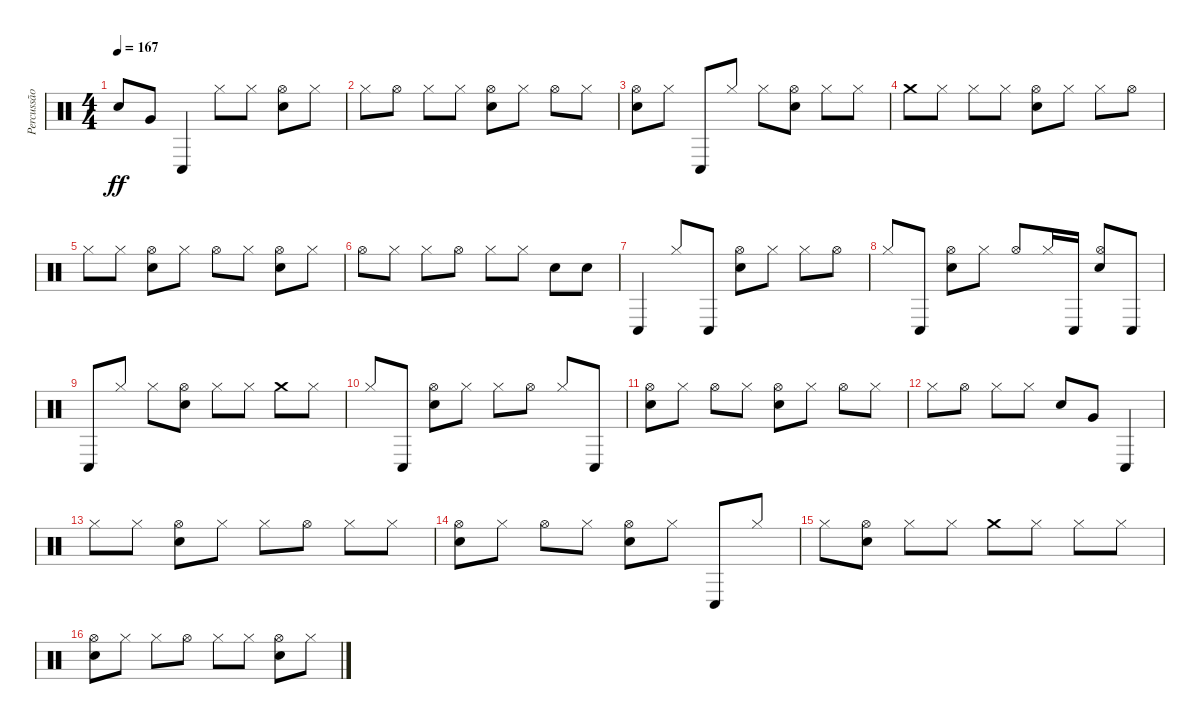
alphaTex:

\track ("Percussão" "Percussão") {instrument percussion}
\staff {score}
\articulation defaults
\ts (4 4)
\tempo 167
\clef neutral
\ks c "Electric Snare (hit)".8{dy ff} "Very Low Tom (hit)".8 "Conga low (hit)".4 "Hi-Hat (closed)".8 "Hi-Hat (closed)".8
("Electric Snare (hit)" "Hi-Hat (open)").8 "Hi-Hat (closed)".8 |
"Hi-Hat (closed)".8 "Hi-Hat (open)".8 "Hi-Hat (closed)".8 "Hi-Hat (closed)".8 ("Electric Snare (hit)" "Hi-Hat (open)").8 "Hi-Hat (closed)".8 "Hi-Hat (open)".8 "Hi-Hat (closed)".8 |
("Electric Snare (hit)" "Hi-Hat (open)").8 "Hi-Hat (closed)".8 "Conga low (hit)".8 "Hi-Hat (closed)".8 "Hi-Hat (closed)".8 ("Electric Snare (hit)" "Hi-Hat (open)").8 "Hi-Hat (closed)".8 "Hi-Hat (closed)".8 |
"Crash medium (hit)".8 "Hi-Hat (closed)".8 "Hi-Hat (closed)".8 "Hi-Hat (closed)".8 ("Electric Snare (hit)" "Hi-Hat (open)").8 "Hi-Hat (closed)".8 "Hi-Hat (closed)".8 "Hi-Hat (open)".8 |
"Hi-Hat (closed)".8 "Hi-Hat (closed)".8 ("Electric Snare (hit)" "Hi-Hat (open)").8 "Hi-Hat (closed)".8 "Hi-Hat (open)".8 "Hi-Hat (closed)".8 ("Electric Snare (hit)" "Hi-Hat (open)").8 "Hi-Hat (closed)".8 |
"Hi-Hat (open)".8 "Hi-Hat (closed)".8 "Hi-Hat (closed)".8 "Hi-Hat (open)".8 "Hi-Hat (closed)".8 "Hi-Hat (closed)".8 "Electric Snare (hit)".8 "Electric Snare (hit)".8 |
"Conga low (hit)".4 "Hi-Hat (closed)".8 "Conga low (hit)".8 ("Electric Snare (hit)" "Hi-Hat (open)").8 "Hi-Hat (closed)".8 "Hi-Hat (closed)".8 "Hi-Hat (open)".8 |
"Hi-Hat (closed)".8 "Conga low (hit)".8 ("Electric Snare (hit)" "Hi-Hat (open)").8 "Hi-Hat (closed)".8 "Hi-Hat (open)".8 "Hi-Hat (closed)".16 "Conga low (hit)".16 ("Electric Snare (hit)" "Hi-Hat (open)").8 "Conga low (hit)".8 |
"Conga low (hit)".8 "Hi-Hat (closed)".8 "Hi-Hat (closed)".8 ("Electric Snare (hit)" "Hi-Hat (open)").8 "Hi-Hat (closed)".8 "Hi-Hat (closed)".8 "Crash medium (hit)".8 "Hi-Hat (closed)".8 |
"Hi-Hat (closed)".8 "Conga low (hit)".8 ("Electric Snare (hit)" "Hi-Hat (open)").8 "Hi-Hat (closed)".8 "Hi-Hat (closed)".8 "Hi-Hat (open)".8 "Hi-Hat (closed)".8 "Conga low (hit)".8 |
("Electric Snare (hit)" "Hi-Hat (open)").8 "Hi-Hat (closed)".8 "Hi-Hat (open)".8 "Hi-Hat (closed)".8 ("Electric Snare (hit)" "Hi-Hat (open)").8 "Hi-Hat (closed)".8 "Hi-Hat (open)".8 "Hi-Hat (closed)".8 |
"Hi-Hat (closed)".8 "Hi-Hat (open)".8 "Hi-Hat (closed)".8 "Hi-Hat (closed)".8 "Electric Snare (hit)".8 "Very Low Tom (hit)".8 "Conga low (hit)".4 |
"Hi-Hat (closed)".8 "Hi-Hat (closed)".8 ("Electric Snare (hit)" "Hi-Hat (open)").8 "Hi-Hat (closed)".8 "Hi-Hat (closed)".8 "Hi-Hat (open)".8 "Hi-Hat (closed)".8 "Hi-Hat (closed)".8 |
("Electric Snare (hit)" "Hi-Hat (open)").8 "Hi-Hat (closed)".8 "Hi-Hat (open)".8 "Hi-Hat (closed)".8 ("Electric Snare (hit)" "Hi-Hat (open)").8 "Hi-Hat (closed)".8 "Conga low (hit)".8 "Hi-Hat (closed)".8 |
"Hi-Hat (closed)".8 ("Electric Snare (hit)" "Hi-Hat (open)").8 "Hi-Hat (closed)".8 "Hi-Hat (closed)".8 "Crash medium (hit)".8 "Hi-Hat (closed)".8 "Hi-Hat (closed)".8 "Hi-Hat (closed)".8 |
("Electric Snare (hit)" "Hi-Hat (open)").8 "Hi-Hat (closed)".8 "Hi-Hat (closed)".8 "Hi-Hat (open)".8 "Hi-Hat (closed)".8 "Hi-Hat (closed)".8 ("Electric Snare (hit)" "Hi-Hat (open)").8 "Hi-Hat (closed)".8
